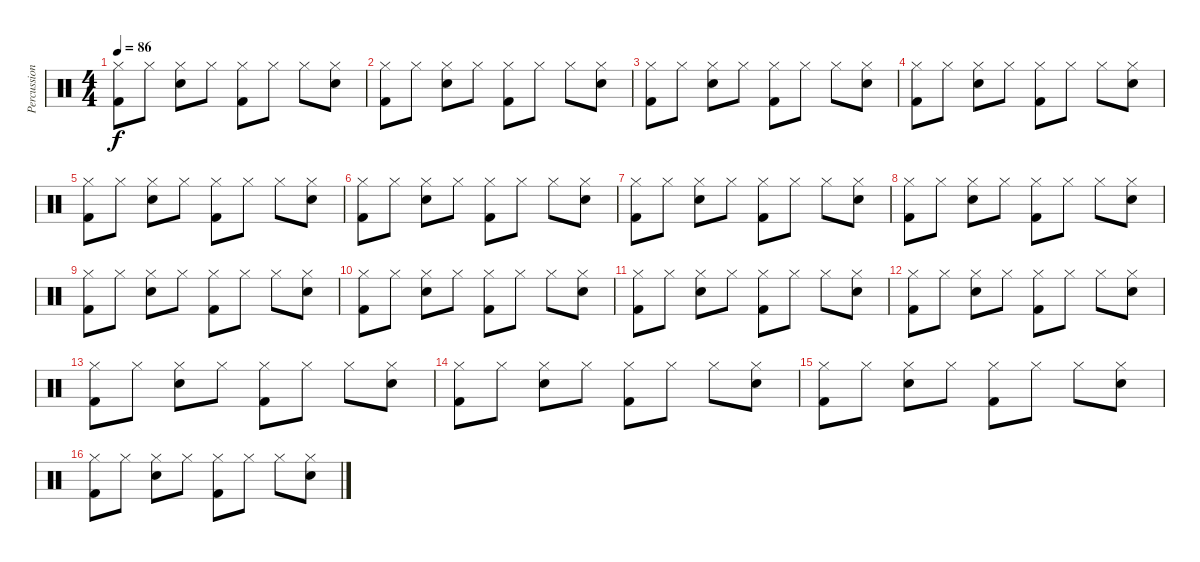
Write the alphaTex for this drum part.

\track ("Percussions" "Percussion") {instrument percussion}
\staff {score}
\articulation defaults
\ts (4 4)
\tempo 86
\clef neutral
\ks c
("Hi-Hat (closed)" "Kick (hit) 2").8{dy f} "Hi-Hat (closed)".8 ("Hi-Hat (closed)" "Snare (hit) 2").8 "Hi-Hat (closed)".8 ("Hi-Hat (closed)" "Kick (hit) 2").8 "Hi-Hat (closed)".8 "Hi-Hat (closed)".8 ("Hi-Hat (closed)" "Snare (hit) 2").8 |
("Hi-Hat (closed)" "Kick (hit) 2").8 "Hi-Hat (closed)".8 ("Hi-Hat (closed)" "Snare (hit) 2").8 "Hi-Hat (closed)".8 ("Hi-Hat (closed)" "Kick (hit) 2").8 "Hi-Hat (closed)".8 "Hi-Hat (closed)".8 ("Hi-Hat (closed)" "Snare (hit) 2").8 |
("Hi-Hat (closed)" "Kick (hit) 2").8 "Hi-Hat (closed)".8 ("Hi-Hat (closed)" "Snare (hit) 2").8 "Hi-Hat (closed)".8 ("Hi-Hat (closed)" "Kick (hit) 2").8 "Hi-Hat (closed)".8 "Hi-Hat (closed)".8 ("Hi-Hat (closed)" "Snare (hit) 2").8 |
("Hi-Hat (closed)" "Kick (hit) 2").8 "Hi-Hat (closed)".8 ("Hi-Hat (closed)" "Snare (hit) 2").8 "Hi-Hat (closed)".8 ("Hi-Hat (closed)" "Kick (hit) 2").8 "Hi-Hat (closed)".8 "Hi-Hat (closed)".8 ("Hi-Hat (closed)" "Snare (hit) 2").8 |
("Hi-Hat (closed)" "Kick (hit) 2").8 "Hi-Hat (closed)".8 ("Hi-Hat (closed)" "Snare (hit) 2").8 "Hi-Hat (closed)".8 ("Hi-Hat (closed)" "Kick (hit) 2").8 "Hi-Hat (closed)".8 "Hi-Hat (closed)".8 ("Hi-Hat (closed)" "Snare (hit) 2").8 |
("Hi-Hat (closed)" "Kick (hit) 2").8 "Hi-Hat (closed)".8 ("Hi-Hat (closed)" "Snare (hit) 2").8 "Hi-Hat (closed)".8 ("Hi-Hat (closed)" "Kick (hit) 2").8 "Hi-Hat (closed)".8 "Hi-Hat (closed)".8 ("Hi-Hat (closed)" "Snare (hit) 2").8 |
("Hi-Hat (closed)" "Kick (hit) 2").8 "Hi-Hat (closed)".8 ("Hi-Hat (closed)" "Snare (hit) 2").8 "Hi-Hat (closed)".8 ("Hi-Hat (closed)" "Kick (hit) 2").8 "Hi-Hat (closed)".8 "Hi-Hat (closed)".8 ("Hi-Hat (closed)" "Snare (hit) 2").8 |
("Hi-Hat (closed)" "Kick (hit) 2").8 "Hi-Hat (closed)".8 ("Hi-Hat (closed)" "Snare (hit) 2").8 "Hi-Hat (closed)".8 ("Hi-Hat (closed)" "Kick (hit) 2").8 "Hi-Hat (closed)".8 "Hi-Hat (closed)".8 ("Hi-Hat (closed)" "Snare (hit) 2").8 |
("Hi-Hat (closed)" "Kick (hit) 2").8 "Hi-Hat (closed)".8 ("Hi-Hat (closed)" "Snare (hit) 2").8 "Hi-Hat (closed)".8 ("Hi-Hat (closed)" "Kick (hit) 2").8 "Hi-Hat (closed)".8 "Hi-Hat (closed)".8 ("Hi-Hat (closed)" "Snare (hit) 2").8 |
("Hi-Hat (closed)" "Kick (hit) 2").8 "Hi-Hat (closed)".8 ("Hi-Hat (closed)" "Snare (hit) 2").8 "Hi-Hat (closed)".8 ("Hi-Hat (closed)" "Kick (hit) 2").8 "Hi-Hat (closed)".8 "Hi-Hat (closed)".8 ("Hi-Hat (closed)" "Snare (hit) 2").8 |
("Hi-Hat (closed)" "Kick (hit) 2").8 "Hi-Hat (closed)".8 ("Hi-Hat (closed)" "Snare (hit) 2").8 "Hi-Hat (closed)".8 ("Hi-Hat (closed)" "Kick (hit) 2").8 "Hi-Hat (closed)".8 "Hi-Hat (closed)".8 ("Hi-Hat (closed)" "Snare (hit) 2").8 |
("Hi-Hat (closed)" "Kick (hit) 2").8 "Hi-Hat (closed)".8 ("Hi-Hat (closed)" "Snare (hit) 2").8 "Hi-Hat (closed)".8 ("Hi-Hat (closed)" "Kick (hit) 2").8 "Hi-Hat (closed)".8 "Hi-Hat (closed)".8 ("Hi-Hat (closed)" "Snare (hit) 2").8 |
("Hi-Hat (closed)" "Kick (hit) 2").8 "Hi-Hat (closed)".8 ("Hi-Hat (closed)" "Snare (hit) 2").8 "Hi-Hat (closed)".8 ("Hi-Hat (closed)" "Kick (hit) 2").8 "Hi-Hat (closed)".8 "Hi-Hat (closed)".8 ("Hi-Hat (closed)" "Snare (hit) 2").8 |
("Hi-Hat (closed)" "Kick (hit) 2").8 "Hi-Hat (closed)".8 ("Hi-Hat (closed)" "Snare (hit) 2").8 "Hi-Hat (closed)".8 ("Hi-Hat (closed)" "Kick (hit) 2").8 "Hi-Hat (closed)".8 "Hi-Hat (closed)".8 ("Hi-Hat (closed)" "Snare (hit) 2").8 |
("Hi-Hat (closed)" "Kick (hit) 2").8 "Hi-Hat (closed)".8 ("Hi-Hat (closed)" "Snare (hit) 2").8 "Hi-Hat (closed)".8 ("Hi-Hat (closed)" "Kick (hit) 2").8 "Hi-Hat (closed)".8 "Hi-Hat (closed)".8 ("Hi-Hat (closed)" "Snare (hit) 2").8 |
("Hi-Hat (closed)" "Kick (hit) 2").8 "Hi-Hat (closed)".8 ("Hi-Hat (closed)" "Snare (hit) 2").8 "Hi-Hat (closed)".8 ("Hi-Hat (closed)" "Kick (hit) 2").8 "Hi-Hat (closed)".8 "Hi-Hat (closed)".8 ("Hi-Hat (closed)" "Snare (hit) 2").8
